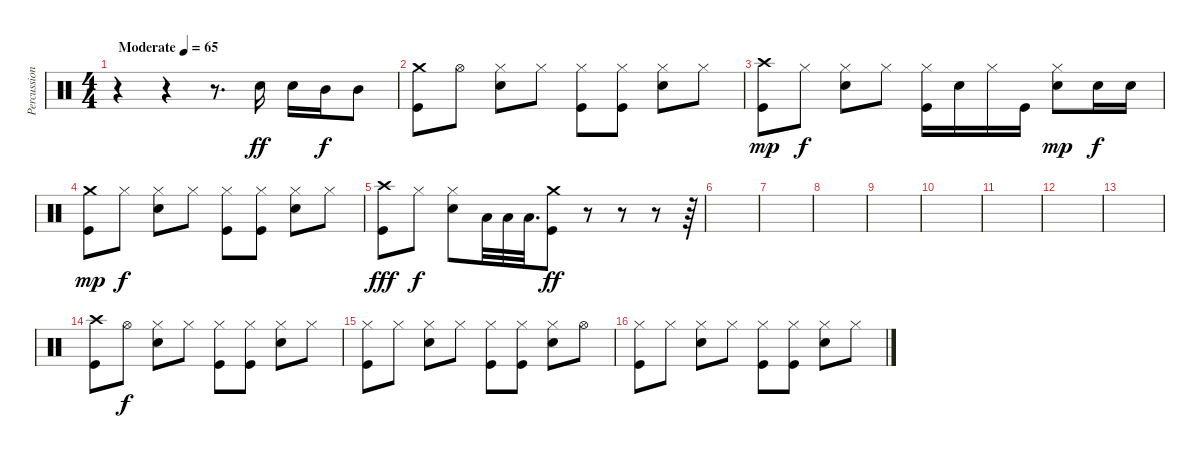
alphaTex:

\track ("Percussion" "Percussion") {instrument percussion}
\staff {score}
\articulation defaults
\ts (4 4)
\tempo (65 "Moderate")
\clef neutral
\ks c
r.4{dy ff} r.4 r.8{d} "Electric Snare (hit)".16 "Electric Snare (hit)".16 "Mid Tom (hit)".16{dy f} "Mid Tom (hit)".8 |
("Crash medium (hit)" "Kick (hit)").8 "Hi-Hat (open)".8 ("Hi-Hat (closed)" "Electric Snare (hit)").8 "Hi-Hat (closed)".8 ("Hi-Hat (closed)" "Kick (hit)").8 ("Hi-Hat (closed)" "Kick (hit)").8 ("Hi-Hat (closed)" "Electric Snare (hit)").8 "Hi-Hat (closed)".8 |
("Crash high (hit)" "Kick (hit)").8{dy mp} "Hi-Hat (closed)".8{dy f} ("Hi-Hat (closed)" "Electric Snare (hit)").8 "Hi-Hat (closed)".8 ("Hi-Hat (closed)" "Kick (hit)").16 "Electric Snare (hit)".16 "Hi-Hat (closed)".16 "Kick (hit)".16 ("Hi-Hat (closed)" "Electric Snare (hit)").8{dy mp} "Electric Snare (hit)".16{dy f} "Electric Snare (hit)".16 |
("Crash medium (hit)" "Kick (hit)").8{dy mp} "Hi-Hat (closed)".8{dy f} ("Hi-Hat (closed)" "Electric Snare (hit)").8 "Hi-Hat (closed)".8 ("Hi-Hat (closed)" "Kick (hit)").8 ("Hi-Hat (closed)" "Kick (hit)").8 ("Hi-Hat (closed)" "Electric Snare (hit)").8 "Hi-Hat (closed)".8 |
("Crash high (hit)" "Kick (hit)").8{dy fff} "Hi-Hat (closed)".8{dy f} ("Hi-Hat (closed)" "Electric Snare (hit)").8 "Low Floor Tom (hit)".32 "Low Floor Tom (hit)".32 "Low Floor Tom (hit)".32{d} ("Crash medium (hit)" "Kick (hit)").8{dy ff} r.8 r.8 r.8 r.64 |
|
|
|
|
|
|
|
|
("Crash high (hit)" "Kick (hit)").8 "Hi-Hat (open)".8{dy f} ("Hi-Hat (closed)" "Electric Snare (hit)").8 "Hi-Hat (closed)".8 ("Hi-Hat (closed)" "Kick (hit)").8 ("Hi-Hat (closed)" "Kick (hit)").8 ("Hi-Hat (closed)" "Electric Snare (hit)").8 "Hi-Hat (closed)".8 |
("Hi-Hat (closed)" "Kick (hit)").8 "Hi-Hat (closed)".8 ("Hi-Hat (closed)" "Electric Snare (hit)").8 "Hi-Hat (closed)".8 ("Hi-Hat (closed)" "Kick (hit)").8 ("Hi-Hat (closed)" "Kick (hit)").8 ("Hi-Hat (closed)" "Electric Snare (hit)").8 "Hi-Hat (open)".8 |
("Hi-Hat (closed)" "Kick (hit)").8 "Hi-Hat (closed)".8 ("Hi-Hat (closed)" "Electric Snare (hit)").8 "Hi-Hat (closed)".8 ("Hi-Hat (closed)" "Kick (hit)").8 ("Hi-Hat (closed)" "Kick (hit)").8 ("Hi-Hat (closed)" "Electric Snare (hit)").8 "Hi-Hat (closed)".8
